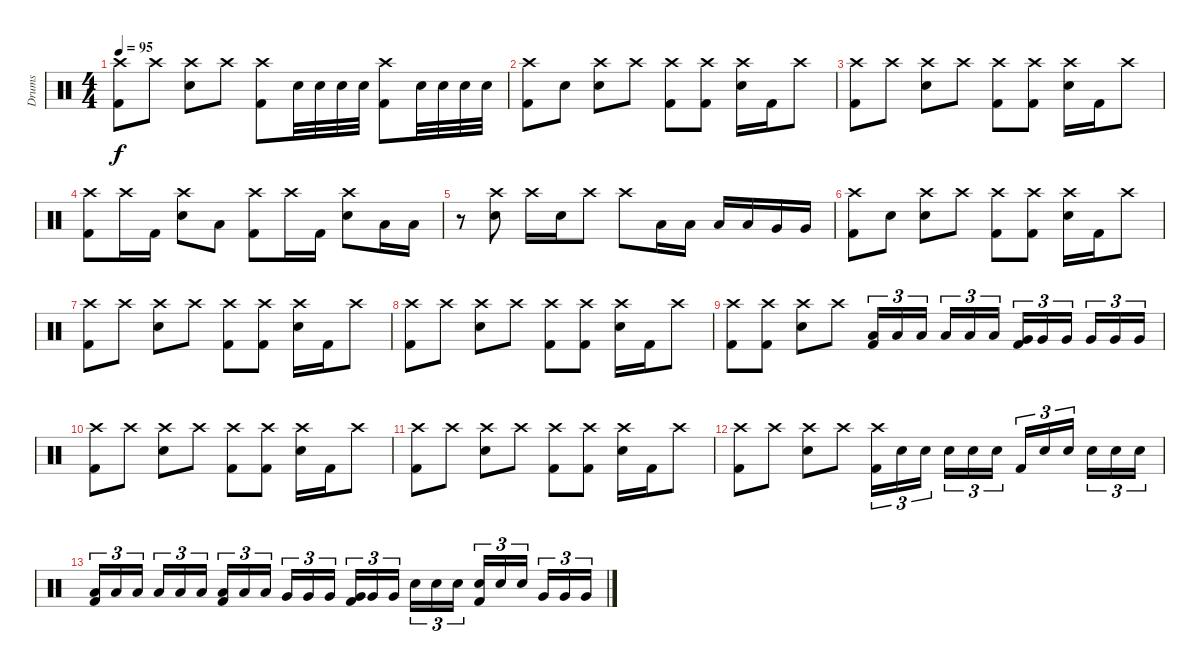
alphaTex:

\track ("Drums" "Drums") {instrument percussion}
\staff {score}
\articulation defaults
\ts (4 4)
\tempo 95
\clef neutral
\ks c
("Crash high (hit)" "Kick (hit) 2").8{dy f} "Crash high (hit)".8 ("Snare (hit) 2" "Crash high (hit)").8 "Crash high (hit)".8 ("Crash high (hit)" "Kick (hit) 2").8 "Snare (hit) 2".32 "Snare (hit) 2".32 "Snare (hit) 2".32 "Snare (hit) 2".32 ("Crash high (hit)" "Kick (hit) 2").8 "Snare (hit) 2".32 "Snare (hit) 2".32 "Snare (hit) 2".32 "Snare (hit) 2".32 |
("Kick (hit) 2" "Crash high (hit)").8 "Snare (hit)".8 ("Snare (hit) 2" "Crash high (hit)").8 "Crash high (hit)".8 ("Kick (hit) 2" "Crash high (hit)").8 ("Kick (hit) 2" "Crash high (hit)").8 ("Snare (hit) 2" "Crash high (hit)").16 "Kick (hit) 2".16 "Crash high (hit)".8 |
("Kick (hit) 2" "Crash high (hit)").8 "Crash high (hit)".8 ("Snare (hit) 2" "Crash high (hit)").8 "Crash high (hit)".8 ("Kick (hit) 2" "Crash high (hit)").8 ("Kick (hit) 2" "Crash high (hit)").8 ("Snare (hit) 2" "Crash high (hit)").16 "Kick (hit) 2".16 "Crash high (hit)".8 |
("Crash high (hit)" "Kick (hit) 2").8 "Crash high (hit)".16 "Kick (hit) 2".16 ("Snare (hit) 2" "Crash high (hit)").8 "Low Floor Tom (hit)".8 ("Crash high (hit)" "Kick (hit) 2").8 "Crash high (hit)".16 "Kick (hit) 2".16 ("Snare (hit) 2" "Crash high (hit)").8 "Low Tom (hit)".16 "Low Tom (hit)".16 |
r.8 ("Snare (hit) 2" "Crash high (hit)").8 "Crash high (hit)".16 "Snare (hit) 2".16 "Crash high (hit)".8 "Crash high (hit)".8 "Low Tom (hit)".16 "Low Tom (hit)".16 "Low Tom (hit)".16 "Low Tom (hit)".16 "Very Low Tom (hit)".16 "Very Low Tom (hit)".16 |
("Kick (hit) 2" "Crash high (hit)").8 "Snare (hit)".8 ("Snare (hit) 2" "Crash high (hit)").8 "Crash high (hit)".8 ("Kick (hit) 2" "Crash high (hit)").8 ("Kick (hit) 2" "Crash high (hit)").8 ("Snare (hit) 2" "Crash high (hit)").16 "Kick (hit) 2".16 "Crash high (hit)".8 |
("Kick (hit) 2" "Crash high (hit)").8 "Crash high (hit)".8 ("Snare (hit) 2" "Crash high (hit)").8 "Crash high (hit)".8 ("Kick (hit) 2" "Crash high (hit)").8 ("Kick (hit) 2" "Crash high (hit)").8 ("Snare (hit) 2" "Crash high (hit)").16 "Kick (hit) 2".16 "Crash high (hit)".8 |
("Kick (hit) 2" "Crash high (hit)").8 "Crash high (hit)".8 ("Snare (hit) 2" "Crash high (hit)").8 "Crash high (hit)".8 ("Kick (hit) 2" "Crash high (hit)").8 ("Kick (hit) 2" "Crash high (hit)").8 ("Snare (hit) 2" "Crash high (hit)").16 "Kick (hit) 2".16 "Crash high (hit)".8 |
("Crash high (hit)" "Kick (hit) 2").8 ("Crash high (hit)" "Kick (hit) 2").8 ("Crash high (hit)" "Snare (hit) 2").8 "Crash high (hit)".8 ("Low Tom (hit)" "Kick (hit) 2").16{tu (3 2)} "Low Tom (hit)".16{tu (3 2)} "Low Tom (hit)".16{tu (3 2)} "Low Tom (hit)".16{tu (3 2)} "Low Tom (hit)".16{tu (3 2)} "Low Tom (hit)".16{tu (3 2)} ("Very Low Tom (hit)" "Kick (hit) 2").16{tu (3 2)} "Very Low Tom (hit)".16{tu (3 2)} "Very Low Tom (hit)".16{tu (3 2)} "Very Low Tom (hit)".16{tu (3 2)} "Very Low Tom (hit)".16{tu (3 2)} "Very Low Tom (hit)".16{tu (3 2)} |
("Kick (hit) 2" "Crash high (hit)").8 "Crash high (hit)".8 ("Snare (hit) 2" "Crash high (hit)").8 "Crash high (hit)".8 ("Kick (hit) 2" "Crash high (hit)").8 ("Kick (hit) 2" "Crash high (hit)").8 ("Snare (hit) 2" "Crash high (hit)").16 "Kick (hit) 2".16 "Crash high (hit)".8 |
("Kick (hit) 2" "Crash high (hit)").8 "Crash high (hit)".8 ("Snare (hit) 2" "Crash high (hit)").8 "Crash high (hit)".8 ("Kick (hit) 2" "Crash high (hit)").8 ("Kick (hit) 2" "Crash high (hit)").8 ("Snare (hit) 2" "Crash high (hit)").16 "Kick (hit) 2".16 "Crash high (hit)".8 |
("Crash high (hit)" "Kick (hit) 2").8 "Crash high (hit)".8 ("Crash high (hit)" "Snare (hit) 2").8 "Crash high (hit)".8 ("Crash high (hit)" "Kick (hit) 2").16{tu (3 2)} "Snare (hit) 2".16{tu (3 2)} "Snare (hit) 2".16{tu (3 2)} "Snare (hit) 2".16{tu (3 2)} "Snare (hit) 2".16{tu (3 2)} "Snare (hit) 2".16{tu (3 2)} "Kick (hit) 2".16{tu (3 2)} "Snare (hit) 2".16{tu (3 2)} "Snare (hit) 2".16{tu (3 2)} "Snare (hit) 2".16{tu (3 2)} "Snare (hit) 2".16{tu (3 2)} "Snare (hit) 2".16{tu (3 2)} |
("Kick (hit) 2" "Low Tom (hit)").16{tu (3 2)} "Low Tom (hit)".16{tu (3 2)} "Low Tom (hit)".16{tu (3 2)} "Low Tom (hit)".16{tu (3 2)} "Low Tom (hit)".16{tu (3 2)} "Low Tom (hit)".16{tu (3 2)} ("Low Tom (hit)" "Kick (hit) 2").16{tu (3 2)} "Low Tom (hit)".16{tu (3 2)} "Low Tom (hit)".16{tu (3 2)} "Very Low Tom (hit)".16{tu (3 2)} "Very Low Tom (hit)".16{tu (3 2)} "Very Low Tom (hit)".16{tu (3 2)} ("Very Low Tom (hit)" "Kick (hit) 2").16{tu (3 2)} "Very Low Tom (hit)".16{tu (3 2)} "Very Low Tom (hit)".16{tu (3 2)} "Snare (hit) 2".16{tu (3 2)} "Snare (hit) 2".16{tu (3 2)} "Snare (hit) 2".16{tu (3 2)} ("Snare (hit) 2" "Kick (hit) 2").16{tu (3 2)} "Snare (hit) 2".16{tu (3 2)} "Snare (hit) 2".16{tu (3 2)} "Very Low Tom (hit)".16{tu (3 2)} "Very Low Tom (hit)".16{tu (3 2)} "Very Low Tom (hit)".16{tu (3 2)}
